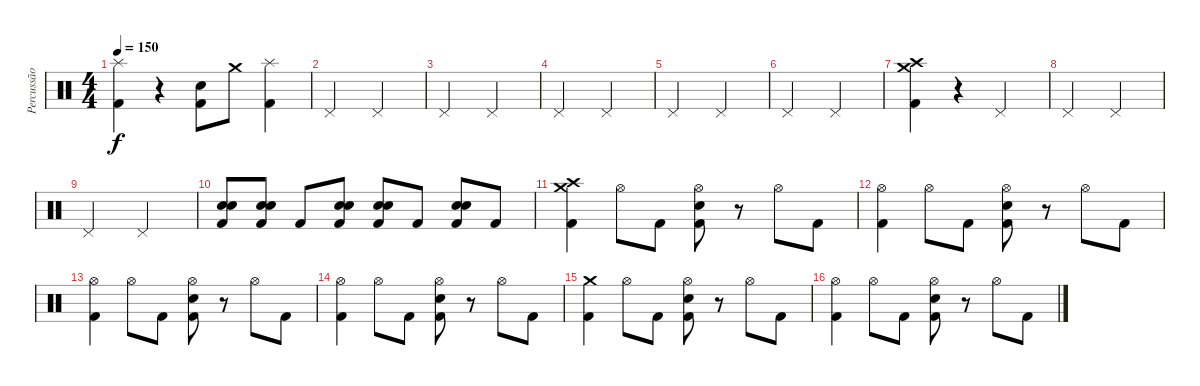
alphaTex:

\track ("Percussão" "Percussão") {instrument percussion}
\staff {score}
\articulation defaults
\ts (4 4)
\tempo 150
\clef neutral
\ks c
("Splash (hit)" "Kick (hit) 2").4{dy f} r.4 ("Snare (hit) 2" "Kick (hit) 2").8 "Crash medium (hit)".8 ("Splash (hit)" "Kick (hit) 2").4 |
"Pedal Hi-Hat (hit)".2 "Pedal Hi-Hat (hit)".2 |
"Pedal Hi-Hat (hit)".2 "Pedal Hi-Hat (hit)".2 |
"Pedal Hi-Hat (hit)".2 "Pedal Hi-Hat (hit)".2 |
"Pedal Hi-Hat (hit)".2 "Pedal Hi-Hat (hit)".2 |
"Pedal Hi-Hat (hit)".2 "Pedal Hi-Hat (hit)".2 |
("Crash medium (hit)" "Crash high (hit)" "Kick (hit) 2").4 r.4 "Pedal Hi-Hat (hit)".2 |
"Pedal Hi-Hat (hit)".2 "Pedal Hi-Hat (hit)".2 |
"Pedal Hi-Hat (hit)".2 "Pedal Hi-Hat (hit)".2 |
("Snare (hit) 2" "Snare (hit) 2" "Kick (hit) 2").8 ("Snare (hit) 2" "Snare (hit) 2" "Kick (hit) 2").8 "Kick (hit) 2".8 ("Snare (hit) 2" "Snare (hit) 2" "Kick (hit) 2").8 ("Snare (hit) 2" "Snare (hit) 2" "Kick (hit) 2").8 "Kick (hit) 2".8 ("Snare (hit) 2" "Snare (hit) 2" "Kick (hit) 2").8 "Kick (hit) 2".8 |
("Crash medium (hit)" "Crash high (hit)" "Kick (hit) 2").4 "Hi-Hat (open)".8 "Kick (hit) 2".8 ("Hi-Hat (open)" "Snare (hit) 2" "Kick (hit) 2").8 r.8 "Hi-Hat (open)".8 "Kick (hit) 2".8 |
("Hi-Hat (open)" "Kick (hit) 2").4 "Hi-Hat (open)".8 "Kick (hit) 2".8 ("Hi-Hat (open)" "Snare (hit) 2" "Kick (hit) 2").8 r.8 "Hi-Hat (open)".8 "Kick (hit) 2".8 |
("Hi-Hat (open)" "Kick (hit) 2").4 "Hi-Hat (open)".8 "Kick (hit) 2".8 ("Hi-Hat (open)" "Snare (hit) 2" "Kick (hit) 2").8 r.8 "Hi-Hat (open)".8 "Kick (hit) 2".8 |
("Hi-Hat (open)" "Kick (hit) 2").4 "Hi-Hat (open)".8 "Kick (hit) 2".8 ("Hi-Hat (open)" "Snare (hit) 2" "Kick (hit) 2").8 r.8 "Hi-Hat (open)".8 "Kick (hit) 2".8 |
("Crash medium (hit)" "Kick (hit) 2").4 "Hi-Hat (open)".8 "Kick (hit) 2".8 ("Hi-Hat (open)" "Snare (hit) 2" "Kick (hit) 2").8 r.8 "Hi-Hat (open)".8 "Kick (hit) 2".8 |
("Hi-Hat (open)" "Kick (hit) 2").4 "Hi-Hat (open)".8 "Kick (hit) 2".8 ("Hi-Hat (open)" "Snare (hit) 2" "Kick (hit) 2").8 r.8 "Hi-Hat (open)".8 "Kick (hit) 2".8
